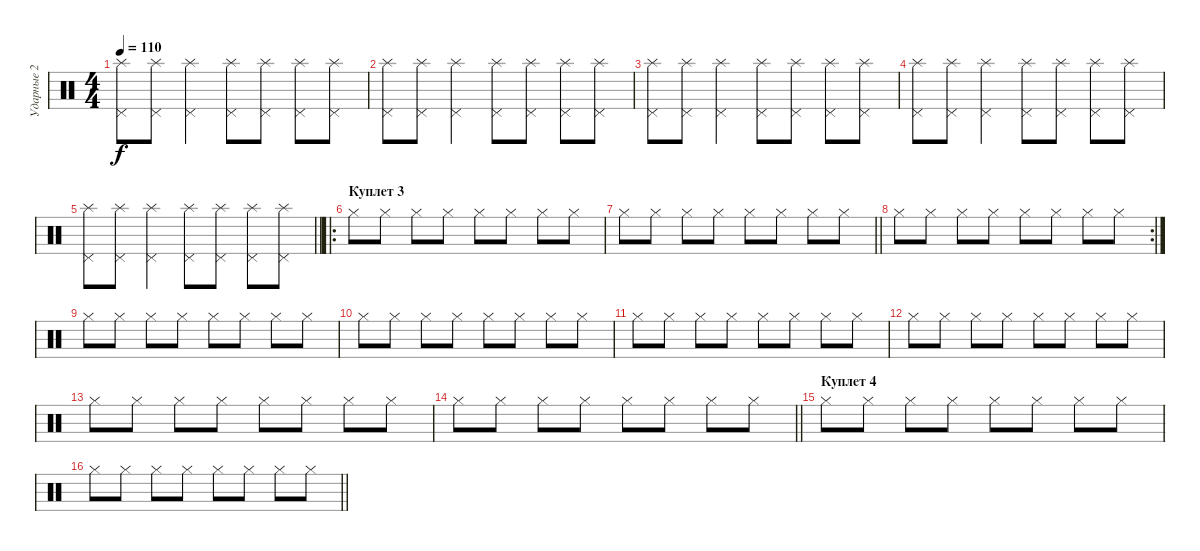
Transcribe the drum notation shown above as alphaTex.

\track ("Ударные 2" "Ударные 2") {instrument percussion}
\staff {score}
\articulation defaults
\ts (4 4)
\tempo 110
\clef neutral
\ks c
("Pedal Hi-Hat (hit)" "Splash (hit)").8{dy f} ("Pedal Hi-Hat (hit)" "Splash (hit)").8 ("Pedal Hi-Hat (hit)" "Splash (hit)").4 ("Pedal Hi-Hat (hit)" "Splash (hit)").8 ("Pedal Hi-Hat (hit)" "Splash (hit)").8 ("Pedal Hi-Hat (hit)" "Splash (hit)").8 ("Pedal Hi-Hat (hit)" "Splash (hit)").8 |
("Pedal Hi-Hat (hit)" "Splash (hit)").8 ("Pedal Hi-Hat (hit)" "Splash (hit)").8 ("Pedal Hi-Hat (hit)" "Splash (hit)").4 ("Pedal Hi-Hat (hit)" "Splash (hit)").8 ("Pedal Hi-Hat (hit)" "Splash (hit)").8 ("Pedal Hi-Hat (hit)" "Splash (hit)").8 ("Pedal Hi-Hat (hit)" "Splash (hit)").8 |
("Pedal Hi-Hat (hit)" "Splash (hit)").8 ("Pedal Hi-Hat (hit)" "Splash (hit)").8 ("Pedal Hi-Hat (hit)" "Splash (hit)").4 ("Pedal Hi-Hat (hit)" "Splash (hit)").8 ("Pedal Hi-Hat (hit)" "Splash (hit)").8 ("Pedal Hi-Hat (hit)" "Splash (hit)").8 ("Pedal Hi-Hat (hit)" "Splash (hit)").8 |
("Pedal Hi-Hat (hit)" "Splash (hit)").8 ("Pedal Hi-Hat (hit)" "Splash (hit)").8 ("Pedal Hi-Hat (hit)" "Splash (hit)").4 ("Pedal Hi-Hat (hit)" "Splash (hit)").8 ("Pedal Hi-Hat (hit)" "Splash (hit)").8 ("Pedal Hi-Hat (hit)" "Splash (hit)").8 ("Pedal Hi-Hat (hit)" "Splash (hit)").8 |
\barLineRight lightlight
("Pedal Hi-Hat (hit)" "Splash (hit)").8 ("Pedal Hi-Hat (hit)" "Splash (hit)").8 ("Pedal Hi-Hat (hit)" "Splash (hit)").4 ("Pedal Hi-Hat (hit)" "Splash (hit)").8 ("Pedal Hi-Hat (hit)" "Splash (hit)").8 ("Pedal Hi-Hat (hit)" "Splash (hit)").8 ("Pedal Hi-Hat (hit)" "Splash (hit)").8 |
\ro
\section ("" "Куплет 3")
"Hi-Hat (closed)".8 "Hi-Hat (closed)".8 "Hi-Hat (closed)".8 "Hi-Hat (closed)".8 "Hi-Hat (closed)".8 "Hi-Hat (closed)".8 "Hi-Hat (closed)".8 "Hi-Hat (closed)".8 |
\barLineRight lightlight "Hi-Hat (closed)".8 "Hi-Hat (closed)".8 "Hi-Hat (closed)".8 "Hi-Hat (closed)".8 "Hi-Hat (closed)".8 "Hi-Hat (closed)".8 "Hi-Hat (closed)".8 "Hi-Hat (closed)".8
|
\rc 2 "Hi-Hat (closed)".8 "Hi-Hat (closed)".8 "Hi-Hat (closed)".8 "Hi-Hat (closed)".8 "Hi-Hat (closed)".8 "Hi-Hat (closed)".8 "Hi-Hat (closed)".8 "Hi-Hat (closed)".8
|
"Hi-Hat (closed)".8 "Hi-Hat (closed)".8 "Hi-Hat (closed)".8 "Hi-Hat (closed)".8 "Hi-Hat (closed)".8 "Hi-Hat (closed)".8 "Hi-Hat (closed)".8 "Hi-Hat (closed)".8 |
"Hi-Hat (closed)".8 "Hi-Hat (closed)".8 "Hi-Hat (closed)".8 "Hi-Hat (closed)".8 "Hi-Hat (closed)".8 "Hi-Hat (closed)".8 "Hi-Hat (closed)".8 "Hi-Hat (closed)".8 |
"Hi-Hat (closed)".8 "Hi-Hat (closed)".8 "Hi-Hat (closed)".8 "Hi-Hat (closed)".8 "Hi-Hat (closed)".8 "Hi-Hat (closed)".8 "Hi-Hat (closed)".8 "Hi-Hat (closed)".8 |
"Hi-Hat (closed)".8 "Hi-Hat (closed)".8 "Hi-Hat (closed)".8 "Hi-Hat (closed)".8 "Hi-Hat (closed)".8 "Hi-Hat (closed)".8 "Hi-Hat (closed)".8 "Hi-Hat (closed)".8 |
"Hi-Hat (closed)".8 "Hi-Hat (closed)".8 "Hi-Hat (closed)".8 "Hi-Hat (closed)".8 "Hi-Hat (closed)".8 "Hi-Hat (closed)".8 "Hi-Hat (closed)".8 "Hi-Hat (closed)".8 |
\barLineRight lightlight "Hi-Hat (closed)".8 "Hi-Hat (closed)".8 "Hi-Hat (closed)".8 "Hi-Hat (closed)".8 "Hi-Hat (closed)".8 "Hi-Hat (closed)".8 "Hi-Hat (closed)".8 "Hi-Hat (closed)".8
|
\section ("" "Куплет 4")
"Hi-Hat (closed)".8 "Hi-Hat (closed)".8 "Hi-Hat (closed)".8 "Hi-Hat (closed)".8 "Hi-Hat (closed)".8 "Hi-Hat (closed)".8 "Hi-Hat (closed)".8 "Hi-Hat (closed)".8 |
\barLineRight lightlight "Hi-Hat (closed)".8 "Hi-Hat (closed)".8 "Hi-Hat (closed)".8 "Hi-Hat (closed)".8 "Hi-Hat (closed)".8 "Hi-Hat (closed)".8 "Hi-Hat (closed)".8 "Hi-Hat (closed)".8
